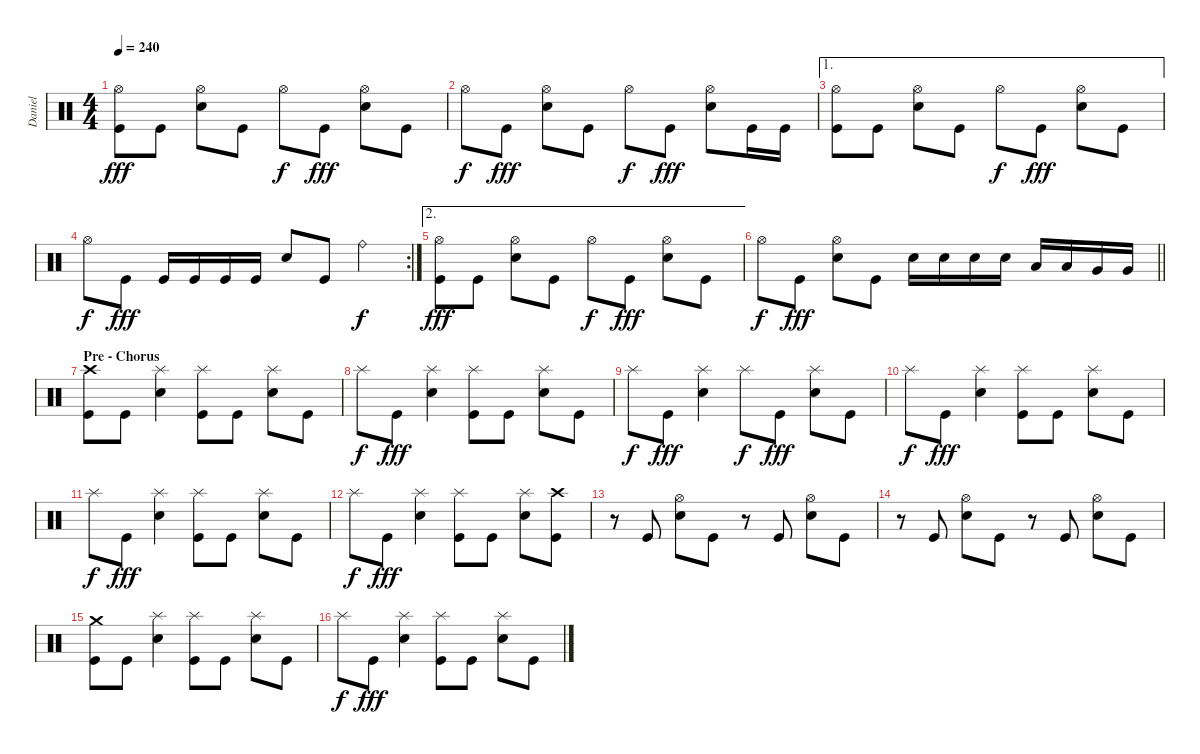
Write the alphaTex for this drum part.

\track ("Daniel" "Daniel") {instrument percussion}
\staff {score}
\articulation defaults
\ts (4 4)
\tempo 240
\clef neutral
\ks c
("Kick (hit)" "Hi-Hat (open)").8{dy fff} "Kick (hit)".8 ("Electric Snare (hit)" "Hi-Hat (open)").8 "Kick (hit)".8 "Hi-Hat (open)".8{dy f} "Kick (hit)".8{dy fff} ("Electric Snare (hit)" "Hi-Hat (open)").8 "Kick (hit)".8 |
"Hi-Hat (open)".8{dy f} "Kick (hit)".8{dy fff} ("Electric Snare (hit)" "Hi-Hat (open)").8 "Kick (hit)".8 "Hi-Hat (open)".8{dy f} "Kick (hit)".8{dy fff} ("Electric Snare (hit)" "Hi-Hat (open)").8 "Kick (hit)".16 "Kick (hit)".16 |
\ae 1
("Kick (hit)" "Hi-Hat (open)").8 "Kick (hit)".8 ("Electric Snare (hit)" "Hi-Hat (open)").8 "Kick (hit)".8 "Hi-Hat (open)".8{dy f} "Kick (hit)".8{dy fff} ("Electric Snare (hit)" "Hi-Hat (open)").8 "Kick (hit)".8 |
\rc 2 "Hi-Hat (open)".8{dy f} "Kick (hit)".8{dy fff} "Kick (hit)".16 "Kick (hit)".16 "Kick (hit)".16 "Kick (hit)".16 "Electric Snare (hit)".8 "Kick (hit)".8 "Ride (bell)".4{dy f}
|
\ae 2
("Kick (hit)" "Hi-Hat (open)").8{dy fff} "Kick (hit)".8 ("Electric Snare (hit)" "Hi-Hat (open)").8 "Kick (hit)".8 "Hi-Hat (open)".8{dy f} "Kick (hit)".8{dy fff} ("Electric Snare (hit)" "Hi-Hat (open)").8 "Kick (hit)".8 |
\barLineRight lightlight "Hi-Hat (open)".8{dy f} "Kick (hit)".8{dy fff}
("Electric Snare (hit)" "Hi-Hat (open)").8 "Kick (hit)".8 "Electric Snare (hit)".16 "Electric Snare (hit)".16 "Electric Snare (hit)".16 "Electric Snare (hit)".16 "Low Tom (hit)".16 "Low Tom (hit)".16 "Very Low Tom (hit)".16 "Very Low Tom (hit)".16 |
\section ("" "Pre - Chorus")
("Kick (hit)" "Crash high (hit)").8 "Kick (hit)".8 ("Electric Snare (hit)" "Splash (hit)").4 ("Kick (hit)" "Splash (hit)").8 "Kick (hit)".8 ("Electric Snare (hit)" "Splash (hit)").8 "Kick (hit)".8 |
"Splash (hit)".8{dy f} "Kick (hit)".8{dy fff} ("Electric Snare (hit)" "Splash (hit)").4 ("Kick (hit)" "Splash (hit)").8 "Kick (hit)".8 ("Electric Snare (hit)" "Splash (hit)").8 "Kick (hit)".8 |
"Splash (hit)".8{dy f} "Kick (hit)".8{dy fff} ("Electric Snare (hit)" "Splash (hit)").4 "Splash (hit)".8{dy f} "Kick (hit)".8{dy fff} ("Electric Snare (hit)" "Splash (hit)").8 "Kick (hit)".8 |
"Splash (hit)".8{dy f} "Kick (hit)".8{dy fff} ("Electric Snare (hit)" "Splash (hit)").4 ("Kick (hit)" "Splash (hit)").8 "Kick (hit)".8 ("Electric Snare (hit)" "Splash (hit)").8 "Kick (hit)".8 |
"Splash (hit)".8{dy f} "Kick (hit)".8{dy fff} ("Electric Snare (hit)" "Splash (hit)").4 ("Kick (hit)" "Splash (hit)").8 "Kick (hit)".8 ("Electric Snare (hit)" "Splash (hit)").8 "Kick (hit)".8 |
"Splash (hit)".8{dy f} "Kick (hit)".8{dy fff} ("Electric Snare (hit)" "Splash (hit)").4 ("Kick (hit)" "Splash (hit)").8 "Kick (hit)".8 ("Electric Snare (hit)" "Splash (hit)").8 ("Kick (hit)" "Crash high (hit)").8 |
r.8 "Kick (hit)".8 ("Electric Snare (hit)" "Hi-Hat (open)").8 "Kick (hit)".8 r.8 "Kick (hit)".8 ("Electric Snare (hit)" "Hi-Hat (open)").8 "Kick (hit)".8 |
r.8 "Kick (hit)".8 ("Electric Snare (hit)" "Hi-Hat (open)").8 "Kick (hit)".8 r.8 "Kick (hit)".8 ("Electric Snare (hit)" "Hi-Hat (open)").8 "Kick (hit)".8 |
("Kick (hit)" "Crash medium (hit)").8 "Kick (hit)".8 ("Electric Snare (hit)" "Splash (hit)").4 ("Kick (hit)" "Splash (hit)").8 "Kick (hit)".8 ("Electric Snare (hit)" "Splash (hit)").8 "Kick (hit)".8 |
"Splash (hit)".8{dy f} "Kick (hit)".8{dy fff} ("Electric Snare (hit)" "Splash (hit)").4 ("Kick (hit)" "Splash (hit)").8 "Kick (hit)".8 ("Electric Snare (hit)" "Splash (hit)").8 "Kick (hit)".8
